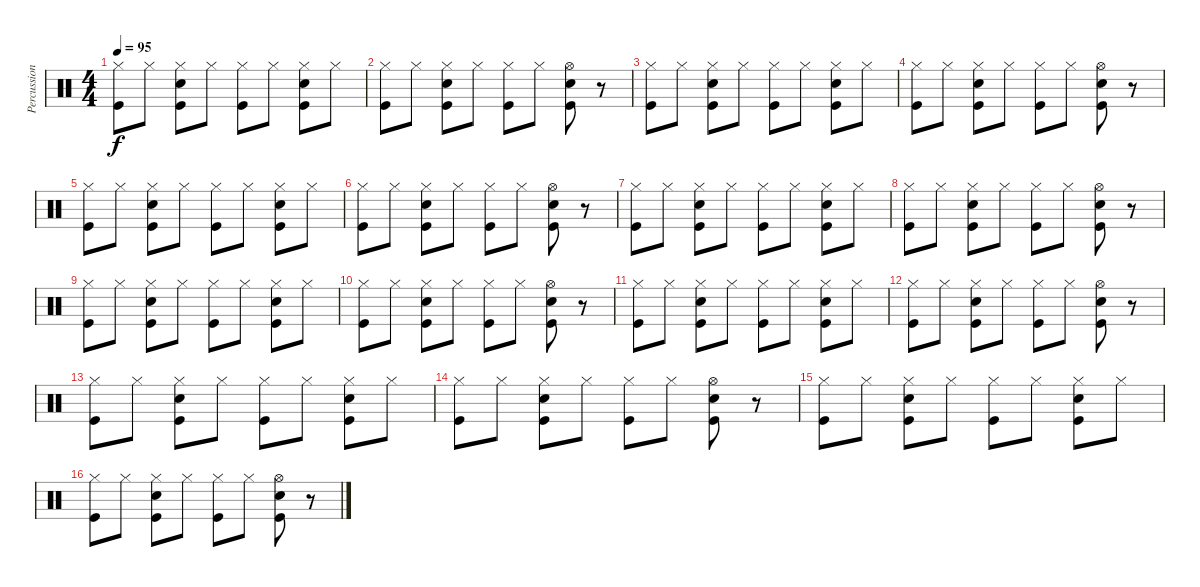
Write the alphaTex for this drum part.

\track ("Percussion" "Percussion") {instrument percussion}
\staff {score}
\articulation defaults
\ts (4 4)
\tempo 95
\clef neutral
\ks c
("Hi-Hat (closed)" "Kick (hit)").8{dy f} "Hi-Hat (closed)".8 ("Hi-Hat (closed)" "Electric Snare (hit)" "Kick (hit)").8 "Hi-Hat (closed)".8 ("Hi-Hat (closed)" "Kick (hit)").8 "Hi-Hat (closed)".8 ("Hi-Hat (closed)" "Electric Snare (hit)" "Kick (hit)").8 "Hi-Hat (closed)".8 |
("Hi-Hat (closed)" "Kick (hit)").8 "Hi-Hat (closed)".8 ("Hi-Hat (closed)" "Electric Snare (hit)" "Kick (hit)").8 "Hi-Hat (closed)".8 ("Hi-Hat (closed)" "Kick (hit)").8 "Hi-Hat (closed)".8 ("Hi-Hat (open)" "Electric Snare (hit)" "Kick (hit)").8 r.8 |
("Hi-Hat (closed)" "Kick (hit)").8 "Hi-Hat (closed)".8 ("Hi-Hat (closed)" "Electric Snare (hit)" "Kick (hit)").8 "Hi-Hat (closed)".8 ("Hi-Hat (closed)" "Kick (hit)").8 "Hi-Hat (closed)".8 ("Hi-Hat (closed)" "Electric Snare (hit)" "Kick (hit)").8 "Hi-Hat (closed)".8 |
("Hi-Hat (closed)" "Kick (hit)").8 "Hi-Hat (closed)".8 ("Hi-Hat (closed)" "Electric Snare (hit)" "Kick (hit)").8 "Hi-Hat (closed)".8 ("Hi-Hat (closed)" "Kick (hit)").8 "Hi-Hat (closed)".8 ("Hi-Hat (open)" "Electric Snare (hit)" "Kick (hit)").8 r.8 |
("Hi-Hat (closed)" "Kick (hit)").8 "Hi-Hat (closed)".8 ("Hi-Hat (closed)" "Electric Snare (hit)" "Kick (hit)").8 "Hi-Hat (closed)".8 ("Hi-Hat (closed)" "Kick (hit)").8 "Hi-Hat (closed)".8 ("Hi-Hat (closed)" "Electric Snare (hit)" "Kick (hit)").8 "Hi-Hat (closed)".8 |
("Hi-Hat (closed)" "Kick (hit)").8 "Hi-Hat (closed)".8 ("Hi-Hat (closed)" "Electric Snare (hit)" "Kick (hit)").8 "Hi-Hat (closed)".8 ("Hi-Hat (closed)" "Kick (hit)").8 "Hi-Hat (closed)".8 ("Hi-Hat (open)" "Electric Snare (hit)" "Kick (hit)").8 r.8 |
("Hi-Hat (closed)" "Kick (hit)").8 "Hi-Hat (closed)".8 ("Hi-Hat (closed)" "Electric Snare (hit)" "Kick (hit)").8 "Hi-Hat (closed)".8 ("Hi-Hat (closed)" "Kick (hit)").8 "Hi-Hat (closed)".8 ("Hi-Hat (closed)" "Electric Snare (hit)" "Kick (hit)").8 "Hi-Hat (closed)".8 |
("Hi-Hat (closed)" "Kick (hit)").8 "Hi-Hat (closed)".8 ("Hi-Hat (closed)" "Electric Snare (hit)" "Kick (hit)").8 "Hi-Hat (closed)".8 ("Hi-Hat (closed)" "Kick (hit)").8 "Hi-Hat (closed)".8 ("Hi-Hat (open)" "Electric Snare (hit)" "Kick (hit)").8 r.8 |
("Hi-Hat (closed)" "Kick (hit)").8 "Hi-Hat (closed)".8 ("Hi-Hat (closed)" "Electric Snare (hit)" "Kick (hit)").8 "Hi-Hat (closed)".8 ("Hi-Hat (closed)" "Kick (hit)").8 "Hi-Hat (closed)".8 ("Hi-Hat (closed)" "Electric Snare (hit)" "Kick (hit)").8 "Hi-Hat (closed)".8 |
("Hi-Hat (closed)" "Kick (hit)").8 "Hi-Hat (closed)".8 ("Hi-Hat (closed)" "Electric Snare (hit)" "Kick (hit)").8 "Hi-Hat (closed)".8 ("Hi-Hat (closed)" "Kick (hit)").8 "Hi-Hat (closed)".8 ("Hi-Hat (open)" "Electric Snare (hit)" "Kick (hit)").8 r.8 |
("Hi-Hat (closed)" "Kick (hit)").8 "Hi-Hat (closed)".8 ("Hi-Hat (closed)" "Electric Snare (hit)" "Kick (hit)").8 "Hi-Hat (closed)".8 ("Hi-Hat (closed)" "Kick (hit)").8 "Hi-Hat (closed)".8 ("Hi-Hat (closed)" "Electric Snare (hit)" "Kick (hit)").8 "Hi-Hat (closed)".8 |
("Hi-Hat (closed)" "Kick (hit)").8 "Hi-Hat (closed)".8 ("Hi-Hat (closed)" "Electric Snare (hit)" "Kick (hit)").8 "Hi-Hat (closed)".8 ("Hi-Hat (closed)" "Kick (hit)").8 "Hi-Hat (closed)".8 ("Hi-Hat (open)" "Electric Snare (hit)" "Kick (hit)").8 r.8 |
("Hi-Hat (closed)" "Kick (hit)").8 "Hi-Hat (closed)".8 ("Hi-Hat (closed)" "Electric Snare (hit)" "Kick (hit)").8 "Hi-Hat (closed)".8 ("Hi-Hat (closed)" "Kick (hit)").8 "Hi-Hat (closed)".8 ("Hi-Hat (closed)" "Electric Snare (hit)" "Kick (hit)").8 "Hi-Hat (closed)".8 |
("Hi-Hat (closed)" "Kick (hit)").8 "Hi-Hat (closed)".8 ("Hi-Hat (closed)" "Electric Snare (hit)" "Kick (hit)").8 "Hi-Hat (closed)".8 ("Hi-Hat (closed)" "Kick (hit)").8 "Hi-Hat (closed)".8 ("Hi-Hat (open)" "Electric Snare (hit)" "Kick (hit)").8 r.8 |
("Hi-Hat (closed)" "Kick (hit)").8 "Hi-Hat (closed)".8 ("Hi-Hat (closed)" "Electric Snare (hit)" "Kick (hit)").8 "Hi-Hat (closed)".8 ("Hi-Hat (closed)" "Kick (hit)").8 "Hi-Hat (closed)".8 ("Hi-Hat (closed)" "Electric Snare (hit)" "Kick (hit)").8 "Hi-Hat (closed)".8 |
("Hi-Hat (closed)" "Kick (hit)").8 "Hi-Hat (closed)".8 ("Hi-Hat (closed)" "Electric Snare (hit)" "Kick (hit)").8 "Hi-Hat (closed)".8 ("Hi-Hat (closed)" "Kick (hit)").8 "Hi-Hat (closed)".8 ("Hi-Hat (open)" "Electric Snare (hit)" "Kick (hit)").8 r.8
